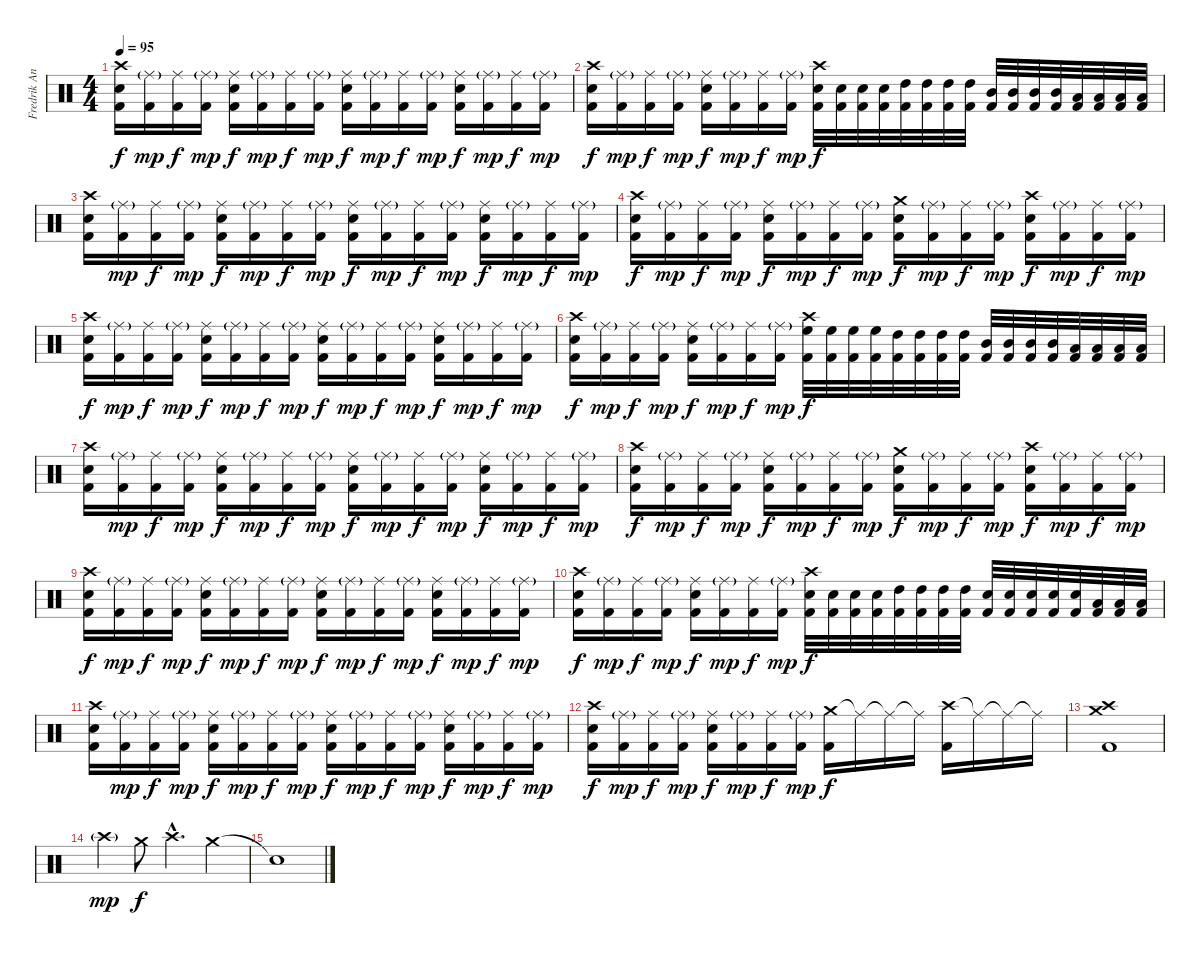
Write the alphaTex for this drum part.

\track ("Fredrik Andersson" "Fredrik An") {instrument percussion}
\staff {score}
\articulation defaults
\ts (4 4)
\tempo 95
\clef neutral
\ks c
("Crash high (hit)" "Electric Snare (hit)" "Kick (hit) 2").16{dy f} ("Ride (middle)"{g} "Kick (hit) 2").16{dy mp} ("Ride (middle)" "Kick (hit) 2").16{dy f} ("Ride (middle)"{g} "Kick (hit) 2").16{dy mp} ("Ride (middle)" "Electric Snare (hit)" "Kick (hit) 2").16{dy f} ("Ride (middle)"{g} "Kick (hit) 2").16{dy mp} ("Ride (middle)" "Kick (hit) 2").16{dy f} ("Ride (middle)"{g} "Kick (hit) 2").16{dy mp} ("Ride (middle)" "Electric Snare (hit)" "Kick (hit) 2").16{dy f} ("Ride (middle)"{g} "Kick (hit) 2").16{dy mp} ("Ride (middle)" "Kick (hit) 2").16{dy f} ("Ride (middle)"{g} "Kick (hit) 2").16{dy mp} ("Ride (middle)" "Electric Snare (hit)" "Kick (hit) 2").16{dy f} ("Ride (middle)"{g} "Kick (hit) 2").16{dy mp} ("Ride (middle)" "Kick (hit) 2").16{dy f} ("Ride (middle)"{g} "Kick (hit) 2").16{dy mp} |
("Crash high (hit)" "Electric Snare (hit)" "Kick (hit) 2").16{dy f} ("Ride (middle)"{g} "Kick (hit) 2").16{dy mp} ("Ride (middle)" "Kick (hit) 2").16{dy f} ("Ride (middle)"{g} "Kick (hit) 2").16{dy mp} ("Ride (middle)" "Electric Snare (hit)" "Kick (hit) 2").16{dy f} ("Ride (middle)"{g} "Kick (hit) 2").16{dy mp} ("Ride (middle)" "Kick (hit) 2").16{dy f} ("Ride (middle)"{g} "Kick (hit) 2").16{dy mp} ("Crash high (hit)" "Electric Snare (hit)" "Kick (hit) 2").32{dy f} ("Electric Snare (hit)" "Kick (hit) 2").32 ("Electric Snare (hit)" "Kick (hit) 2").32 ("Electric Snare (hit)" "Kick (hit) 2").32 ("High Tom (hit)" "Kick (hit) 2").32 ("High Tom (hit)" "Kick (hit) 2").32 ("High Tom (hit)" "Kick (hit) 2").32 ("High Tom (hit)" "Kick (hit) 2").32 ("Mid Tom (hit)" "Kick (hit) 2").32 ("Mid Tom (hit)" "Kick (hit) 2").32 ("Mid Tom (hit)" "Kick (hit) 2").32 ("Mid Tom (hit)" "Kick (hit) 2").32 ("Low Tom (hit)" "Kick (hit) 2").32 ("Low Tom (hit)" "Kick (hit) 2").32 ("Low Tom (hit)" "Kick (hit) 2").32 ("Low Tom (hit)" "Kick (hit) 2").32 |
("Crash high (hit)" "Electric Snare (hit)" "Kick (hit) 2").16 ("Ride (middle)"{g} "Kick (hit) 2").16{dy mp} ("Ride (middle)" "Kick (hit) 2").16{dy f} ("Ride (middle)"{g} "Kick (hit) 2").16{dy mp} ("Ride (middle)" "Electric Snare (hit)" "Kick (hit) 2").16{dy f} ("Ride (middle)"{g} "Kick (hit) 2").16{dy mp} ("Ride (middle)" "Kick (hit) 2").16{dy f} ("Ride (middle)"{g} "Kick (hit) 2").16{dy mp} ("Ride (middle)" "Electric Snare (hit)" "Kick (hit) 2").16{dy f} ("Ride (middle)"{g} "Kick (hit) 2").16{dy mp} ("Ride (middle)" "Kick (hit) 2").16{dy f} ("Ride (middle)"{g} "Kick (hit) 2").16{dy mp} ("Ride (middle)" "Electric Snare (hit)" "Kick (hit) 2").16{dy f} ("Ride (middle)"{g} "Kick (hit) 2").16{dy mp} ("Ride (middle)" "Kick (hit) 2").16{dy f} ("Ride (middle)"{g} "Kick (hit) 2").16{dy mp} |
("Crash high (hit)" "Electric Snare (hit)" "Kick (hit) 2").16{dy f} ("Ride (middle)"{g} "Kick (hit) 2").16{dy mp} ("Ride (middle)" "Kick (hit) 2").16{dy f} ("Ride (middle)"{g} "Kick (hit) 2").16{dy mp} ("Ride (middle)" "Electric Snare (hit)" "Kick (hit) 2").16{dy f} ("Ride (middle)"{g} "Kick (hit) 2").16{dy mp} ("Ride (middle)" "Kick (hit) 2").16{dy f} ("Ride (middle)"{g} "Kick (hit) 2").16{dy mp} ("Crash medium (hit)" "Electric Snare (hit)" "Kick (hit) 2").16{dy f} ("Ride (middle)"{g} "Kick (hit) 2").16{dy mp} ("Ride (middle)" "Kick (hit) 2").16{dy f} ("Ride (middle)"{g} "Kick (hit) 2").16{dy mp} ("Crash high (hit)" "Electric Snare (hit)" "Kick (hit) 2").16{dy f} ("Ride (middle)"{g} "Kick (hit) 2").16{dy mp} ("Ride (middle)" "Kick (hit) 2").16{dy f} ("Ride (middle)"{g} "Kick (hit) 2").16{dy mp} |
("Crash high (hit)" "Electric Snare (hit)" "Kick (hit) 2").16{dy f} ("Ride (middle)"{g} "Kick (hit) 2").16{dy mp} ("Ride (middle)" "Kick (hit) 2").16{dy f} ("Ride (middle)"{g} "Kick (hit) 2").16{dy mp} ("Ride (middle)" "Electric Snare (hit)" "Kick (hit) 2").16{dy f} ("Ride (middle)"{g} "Kick (hit) 2").16{dy mp} ("Ride (middle)" "Kick (hit) 2").16{dy f} ("Ride (middle)"{g} "Kick (hit) 2").16{dy mp} ("Ride (middle)" "Electric Snare (hit)" "Kick (hit) 2").16{dy f} ("Ride (middle)"{g} "Kick (hit) 2").16{dy mp} ("Ride (middle)" "Kick (hit) 2").16{dy f} ("Ride (middle)"{g} "Kick (hit) 2").16{dy mp} ("Ride (middle)" "Electric Snare (hit)" "Kick (hit) 2").16{dy f} ("Ride (middle)"{g} "Kick (hit) 2").16{dy mp} ("Ride (middle)" "Kick (hit) 2").16{dy f} ("Ride (middle)"{g} "Kick (hit) 2").16{dy mp} |
("Crash high (hit)" "Electric Snare (hit)" "Kick (hit) 2").16{dy f} ("Ride (middle)"{g} "Kick (hit) 2").16{dy mp} ("Ride (middle)" "Kick (hit) 2").16{dy f} ("Ride (middle)"{g} "Kick (hit) 2").16{dy mp} ("Ride (middle)" "Electric Snare (hit)" "Kick (hit) 2").16{dy f} ("Ride (middle)"{g} "Kick (hit) 2").16{dy mp} ("Ride (middle)" "Kick (hit) 2").16{dy f} ("Ride (middle)"{g} "Kick (hit) 2").16{dy mp} ("Crash high (hit)" "High Floor Tom (hit)" "Kick (hit) 2").32{dy f} ("High Floor Tom (hit)" "Kick (hit) 2").32 ("High Floor Tom (hit)" "Kick (hit) 2").32 ("High Floor Tom (hit)" "Kick (hit) 2").32 ("High Tom (hit)" "Kick (hit) 2").32 ("High Tom (hit)" "Kick (hit) 2").32 ("High Tom (hit)" "Kick (hit) 2").32 ("High Tom (hit)" "Kick (hit) 2").32 ("Mid Tom (hit)" "Kick (hit) 2").32 ("Mid Tom (hit)" "Kick (hit) 2").32 ("Mid Tom (hit)" "Kick (hit) 2").32 ("Mid Tom (hit)" "Kick (hit) 2").32 ("Low Tom (hit)" "Kick (hit) 2").32 ("Low Tom (hit)" "Kick (hit) 2").32 ("Low Tom (hit)" "Kick (hit) 2").32 ("Low Tom (hit)" "Kick (hit) 2").32 |
("Crash high (hit)" "Electric Snare (hit)" "Kick (hit) 2").16 ("Ride (middle)"{g} "Kick (hit) 2").16{dy mp} ("Ride (middle)" "Kick (hit) 2").16{dy f} ("Ride (middle)"{g} "Kick (hit) 2").16{dy mp} ("Ride (middle)" "Electric Snare (hit)" "Kick (hit) 2").16{dy f} ("Ride (middle)"{g} "Kick (hit) 2").16{dy mp} ("Ride (middle)" "Kick (hit) 2").16{dy f} ("Ride (middle)"{g} "Kick (hit) 2").16{dy mp} ("Ride (middle)" "Electric Snare (hit)" "Kick (hit) 2").16{dy f} ("Ride (middle)"{g} "Kick (hit) 2").16{dy mp} ("Ride (middle)" "Kick (hit) 2").16{dy f} ("Ride (middle)"{g} "Kick (hit) 2").16{dy mp} ("Ride (middle)" "Electric Snare (hit)" "Kick (hit) 2").16{dy f} ("Ride (middle)"{g} "Kick (hit) 2").16{dy mp} ("Ride (middle)" "Kick (hit) 2").16{dy f} ("Ride (middle)"{g} "Kick (hit) 2").16{dy mp} |
("Crash high (hit)" "Electric Snare (hit)" "Kick (hit) 2").16{dy f} ("Ride (middle)"{g} "Kick (hit) 2").16{dy mp} ("Ride (middle)" "Kick (hit) 2").16{dy f} ("Ride (middle)"{g} "Kick (hit) 2").16{dy mp} ("Ride (middle)" "Electric Snare (hit)" "Kick (hit) 2").16{dy f} ("Ride (middle)"{g} "Kick (hit) 2").16{dy mp} ("Ride (middle)" "Kick (hit) 2").16{dy f} ("Ride (middle)"{g} "Kick (hit) 2").16{dy mp} ("Crash medium (hit)" "Electric Snare (hit)" "Kick (hit) 2").16{dy f} ("Ride (middle)"{g} "Kick (hit) 2").16{dy mp} ("Ride (middle)" "Kick (hit) 2").16{dy f} ("Ride (middle)"{g} "Kick (hit) 2").16{dy mp} ("Crash high (hit)" "Electric Snare (hit)" "Kick (hit) 2").16{dy f} ("Ride (middle)"{g} "Kick (hit) 2").16{dy mp} ("Ride (middle)" "Kick (hit) 2").16{dy f} ("Ride (middle)"{g} "Kick (hit) 2").16{dy mp} |
("Crash high (hit)" "Electric Snare (hit)" "Kick (hit) 2").16{dy f} ("Ride (middle)"{g} "Kick (hit) 2").16{dy mp} ("Ride (middle)" "Kick (hit) 2").16{dy f} ("Ride (middle)"{g} "Kick (hit) 2").16{dy mp} ("Ride (middle)" "Electric Snare (hit)" "Kick (hit) 2").16{dy f} ("Ride (middle)"{g} "Kick (hit) 2").16{dy mp} ("Ride (middle)" "Kick (hit) 2").16{dy f} ("Ride (middle)"{g} "Kick (hit) 2").16{dy mp} ("Ride (middle)" "Electric Snare (hit)" "Kick (hit) 2").16{dy f} ("Ride (middle)"{g} "Kick (hit) 2").16{dy mp} ("Ride (middle)" "Kick (hit) 2").16{dy f} ("Ride (middle)"{g} "Kick (hit) 2").16{dy mp} ("Ride (middle)" "Electric Snare (hit)" "Kick (hit) 2").16{dy f} ("Ride (middle)"{g} "Kick (hit) 2").16{dy mp} ("Ride (middle)" "Kick (hit) 2").16{dy f} ("Ride (middle)"{g} "Kick (hit) 2").16{dy mp} |
("Crash high (hit)" "Electric Snare (hit)" "Kick (hit) 2").16{dy f} ("Ride (middle)"{g} "Kick (hit) 2").16{dy mp} ("Ride (middle)" "Kick (hit) 2").16{dy f} ("Ride (middle)"{g} "Kick (hit) 2").16{dy mp} ("Ride (middle)" "Electric Snare (hit)" "Kick (hit) 2").16{dy f} ("Ride (middle)"{g} "Kick (hit) 2").16{dy mp} ("Ride (middle)" "Kick (hit) 2").16{dy f} ("Ride (middle)"{g} "Kick (hit) 2").16{dy mp} ("Crash high (hit)" "Electric Snare (hit)" "Kick (hit) 2").32{dy f} ("Electric Snare (hit)" "Kick (hit) 2").32 ("Electric Snare (hit)" "Kick (hit) 2").32 ("Electric Snare (hit)" "Kick (hit) 2").32 ("High Tom (hit)" "Kick (hit) 2").32 ("High Tom (hit)" "Kick (hit) 2").32 ("High Tom (hit)" "Kick (hit) 2").32 ("High Tom (hit)" "Kick (hit) 2").32 ("Electric Snare (hit)" "Kick (hit) 2").32 ("Electric Snare (hit)" "Kick (hit) 2").32 ("Electric Snare (hit)" "Kick (hit) 2").32 ("Electric Snare (hit)" "Kick (hit) 2").32 ("Electric Snare (hit)" "Kick (hit) 2").32 ("Low Tom (hit)" "Kick (hit) 2").32 ("Low Tom (hit)" "Kick (hit) 2").32 ("Low Tom (hit)" "Kick (hit) 2").32 |
("Crash high (hit)" "Electric Snare (hit)" "Kick (hit) 2").16 ("Ride (middle)"{g} "Kick (hit) 2").16{dy mp} ("Ride (middle)" "Kick (hit) 2").16{dy f} ("Ride (middle)"{g} "Kick (hit) 2").16{dy mp} ("Ride (middle)" "Electric Snare (hit)" "Kick (hit) 2").16{dy f} ("Ride (middle)"{g} "Kick (hit) 2").16{dy mp} ("Ride (middle)" "Kick (hit) 2").16{dy f} ("Ride (middle)"{g} "Kick (hit) 2").16{dy mp} ("Ride (middle)" "Electric Snare (hit)" "Kick (hit) 2").16{dy f} ("Ride (middle)"{g} "Kick (hit) 2").16{dy mp} ("Ride (middle)" "Kick (hit) 2").16{dy f} ("Ride (middle)"{g} "Kick (hit) 2").16{dy mp} ("Ride (middle)" "Electric Snare (hit)" "Kick (hit) 2").16{dy f} ("Ride (middle)"{g} "Kick (hit) 2").16{dy mp} ("Ride (middle)" "Kick (hit) 2").16{dy f} ("Ride (middle)"{g} "Kick (hit) 2").16{dy mp} |
("Crash high (hit)" "Electric Snare (hit)" "Kick (hit) 2").16{dy f} ("Ride (middle)"{g} "Kick (hit) 2").16{dy mp} ("Ride (middle)" "Kick (hit) 2").16{dy f} ("Ride (middle)"{g} "Kick (hit) 2").16{dy mp} ("Ride (middle)" "Electric Snare (hit)" "Kick (hit) 2").16{dy f} ("Ride (middle)"{g} "Kick (hit) 2").16{dy mp} ("Ride (middle)" "Kick (hit) 2").16{dy f} ("Ride (middle)"{g} "Kick (hit) 2").16{dy mp} ("Crash medium (hit)" "Kick (hit) 2").16{dy f} "Ride (middle)"{t}.16 "Ride (middle)"{t}.16 "Ride (middle)"{t}.16 ("Crash high (hit)" "Kick (hit) 2").16 "Ride (middle)"{t}.16 "Ride (middle)"{t}.16 "Ride (middle)"{t}.16 |
("Crash high (hit)" "Crash medium (hit)" "Kick (hit) 2").1 |
"Crash high (hit)"{g}.4{dy mp} "Crash medium (hit)".8{dy f} "Crash high (hit)"{hac}.4{d} "Crash medium (hit)".4 |
"Snare (hit)"{t}.1
